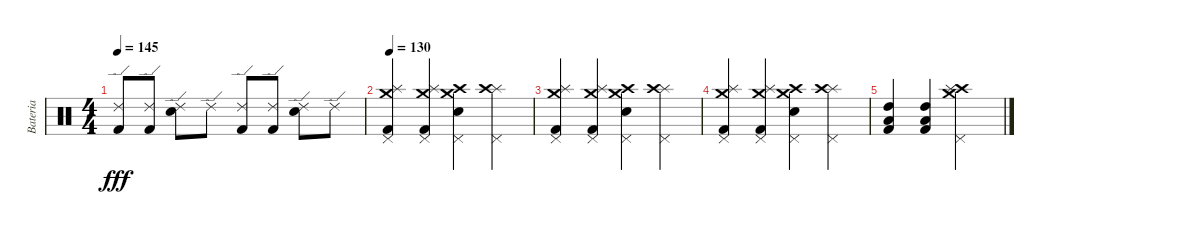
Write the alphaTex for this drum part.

\track ("Bateria" "Bateria") {instrument percussion}
\staff {score}
\articulation defaults
\ts (4 4)
\tempo 145
\clef neutral
\ks c
("Ride (edge) 2" "Kick (hit) 2").8{dy fff} ("Ride (edge) 2" "Kick (hit) 2").8 ("Ride (edge) 2" "Electric Snare (hit)").8 "Ride (edge) 2".8 ("Ride (edge) 2" "Kick (hit) 2").8 ("Ride (edge) 2" "Kick (hit) 2").8 ("Ride (edge) 2" "Electric Snare (hit)").8 "Ride (edge) 2".8 |
\tempo 130
("Crash medium (hit)" "Splash (hit)" "Pedal Hi-Hat (hit)" "Kick (hit) 2").4 ("Crash medium (hit)" "Splash (hit)" "Pedal Hi-Hat (hit)" "Kick (hit) 2").4 ("Crash medium (hit)" "Crash high (hit)" "Pedal Hi-Hat (hit)" "Electric Snare (hit)").4 ("Splash (hit)" "Crash high (hit)" "Pedal Hi-Hat (hit)").4 |
("Crash medium (hit)" "Splash (hit)" "Pedal Hi-Hat (hit)" "Kick (hit) 2").4 ("Crash medium (hit)" "Splash (hit)" "Pedal Hi-Hat (hit)" "Kick (hit) 2").4 ("Crash medium (hit)" "Crash high (hit)" "Pedal Hi-Hat (hit)" "Electric Snare (hit)").4 ("Splash (hit)" "Crash high (hit)" "Pedal Hi-Hat (hit)").4 |
("Crash medium (hit)" "Splash (hit)" "Pedal Hi-Hat (hit)" "Kick (hit) 2").4 ("Crash medium (hit)" "Splash (hit)" "Pedal Hi-Hat (hit)" "Kick (hit) 2").4 ("Crash medium (hit)" "Crash high (hit)" "Pedal Hi-Hat (hit)" "Electric Snare (hit)").4 ("Splash (hit)" "Crash high (hit)" "Pedal Hi-Hat (hit)").4 |
("High Tom (hit)" "Low Tom (hit)" "Kick (hit) 2").4 ("High Tom (hit)" "Low Tom (hit)" "Kick (hit) 2").4 ("Crash medium (hit)" "Crash high (hit)" "Splash (hit)" "Pedal Hi-Hat (hit)").2
